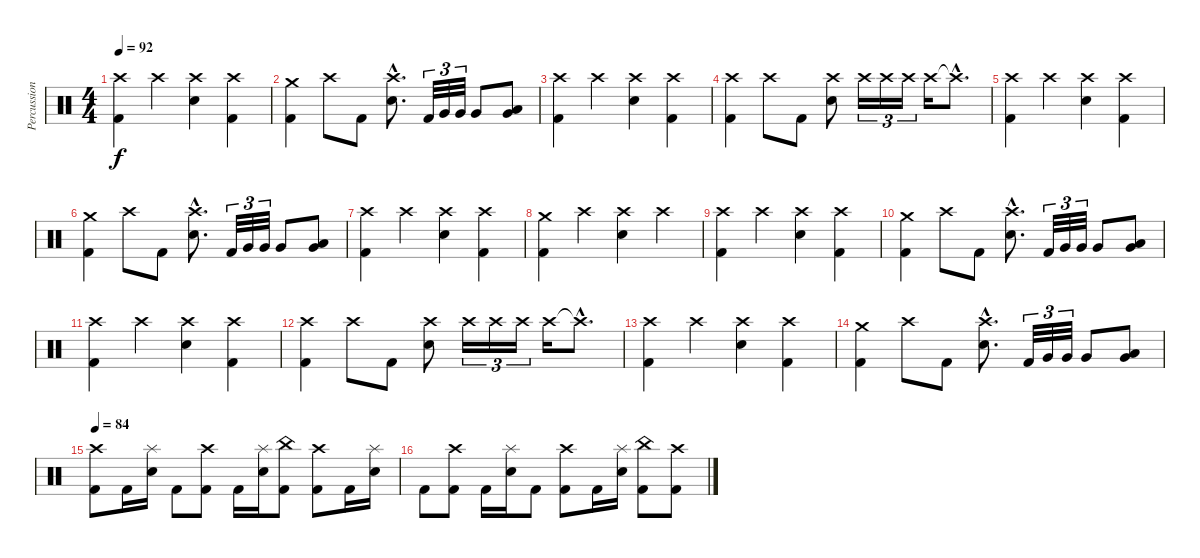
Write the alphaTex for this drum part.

\track ("Percussion" "Percussion") {instrument percussion}
\staff {score}
\articulation defaults
\ts (4 4)
\tempo 92
\clef neutral
\ks c
("Crash high (hit)" "Kick (hit) 2").4{dy f} "Crash high (hit)".4 ("Crash high (hit)" "Electric Snare (hit)").4 ("Crash high (hit)" "Kick (hit) 2").4 |
("Crash medium (hit)" "Kick (hit) 2").4 "Crash high (hit)".8 "Kick (hit) 2".8 ("Crash high (hit)"{hac} "Electric Snare (hit)"{hac}).8{d} "Kick (hit) 2".32{tu (3 2)} "Very Low Tom (hit)".32{tu (3 2)} "Very Low Tom (hit)".32{tu (3 2)} "Very Low Tom (hit)".8 ("Low Tom (hit)" "Very Low Tom (hit)").8 |
("Crash high (hit)" "Kick (hit) 2").4 "Crash high (hit)".4 ("Crash high (hit)" "Electric Snare (hit)").4 ("Kick (hit) 2" "Crash high (hit)").4 |
("Crash high (hit)" "Kick (hit) 2").4 "Crash high (hit)".8 "Kick (hit) 2".8 ("Crash high (hit)" "Electric Snare (hit)").8 "Crash high (hit)".16{tu (3 2)} "Crash high (hit)".16{tu (3 2)} "Crash high (hit)".16{tu (3 2)} "Crash high (hit)".16 "Crash high (hit)"{hac t}.8{d} |
("Crash high (hit)" "Kick (hit) 2").4 "Crash high (hit)".4 ("Crash high (hit)" "Electric Snare (hit)").4 ("Crash high (hit)" "Kick (hit) 2").4 |
("Crash medium (hit)" "Kick (hit) 2").4 "Crash high (hit)".8 "Kick (hit) 2".8 ("Crash high (hit)"{hac} "Electric Snare (hit)"{hac}).8{d} "Kick (hit) 2".32{tu (3 2)} "Very Low Tom (hit)".32{tu (3 2)} "Very Low Tom (hit)".32{tu (3 2)} "Very Low Tom (hit)".8 ("Low Tom (hit)" "Very Low Tom (hit)").8 |
("Crash high (hit)" "Kick (hit) 2").4 "Crash high (hit)".4 ("Crash high (hit)" "Electric Snare (hit)").4 ("Crash high (hit)" "Kick (hit) 2").4 |
("Crash medium (hit)" "Kick (hit) 2").4 "Crash high (hit)".4 ("Crash high (hit)" "Electric Snare (hit)").4 "Crash high (hit)".4 |
("Crash high (hit)" "Kick (hit) 2").4 "Crash high (hit)".4 ("Crash high (hit)" "Electric Snare (hit)").4 ("Crash high (hit)" "Kick (hit) 2").4 |
("Crash medium (hit)" "Kick (hit) 2").4 "Crash high (hit)".8 "Kick (hit) 2".8 ("Crash high (hit)"{hac} "Electric Snare (hit)"{hac}).8{d} "Kick (hit) 2".32{tu (3 2)} "Very Low Tom (hit)".32{tu (3 2)} "Very Low Tom (hit)".32{tu (3 2)} "Very Low Tom (hit)".8 ("Low Tom (hit)" "Very Low Tom (hit)").8 |
("Crash high (hit)" "Kick (hit) 2").4 "Crash high (hit)".4 ("Crash high (hit)" "Electric Snare (hit)").4 ("Kick (hit) 2" "Crash high (hit)").4 |
("Crash high (hit)" "Kick (hit) 2").4 "Crash high (hit)".8 "Kick (hit) 2".8 ("Crash high (hit)" "Electric Snare (hit)").8 "Crash high (hit)".16{tu (3 2)} "Crash high (hit)".16{tu (3 2)} "Crash high (hit)".16{tu (3 2)} "Crash high (hit)".16 "Crash high (hit)"{hac t}.8{d} |
("Crash high (hit)" "Kick (hit) 2").4 "Crash high (hit)".4 ("Crash high (hit)" "Electric Snare (hit)").4 ("Crash high (hit)" "Kick (hit) 2").4 |
("Crash medium (hit)" "Kick (hit) 2").4 "Crash high (hit)".8 "Kick (hit) 2".8 ("Crash high (hit)"{hac} "Electric Snare (hit)"{hac}).8{d} "Kick (hit) 2".32{tu (3 2)} "Very Low Tom (hit)".32{tu (3 2)} "Very Low Tom (hit)".32{tu (3 2)} "Very Low Tom (hit)".8 ("Low Tom (hit)" "Very Low Tom (hit)").8 |
\tempo 84
("Crash high (hit)" "Kick (hit) 2").8 "Kick (hit) 2".16 ("Splash (hit)" "Electric Snare (hit)").16 "Kick (hit) 2".8 ("Crash high (hit)" "Kick (hit) 2").8 "Kick (hit) 2".16 ("Splash (hit)" "Electric Snare (hit)").16 ("China (hit)" "Kick (hit) 2").8 ("Crash high (hit)" "Kick (hit) 2").8 "Kick (hit) 2".16 ("Splash (hit)" "Electric Snare (hit)").16 |
"Kick (hit) 2".8 ("Crash high (hit)" "Kick (hit) 2").8 "Kick (hit) 2".16 ("Splash (hit)" "Electric Snare (hit)").16 "Kick (hit) 2".8 ("Crash high (hit)" "Kick (hit) 2").8 "Kick (hit) 2".16 ("Splash (hit)" "Electric Snare (hit)").16 ("China (hit)" "Kick (hit) 2").8 ("Crash high (hit)" "Kick (hit) 2").8
